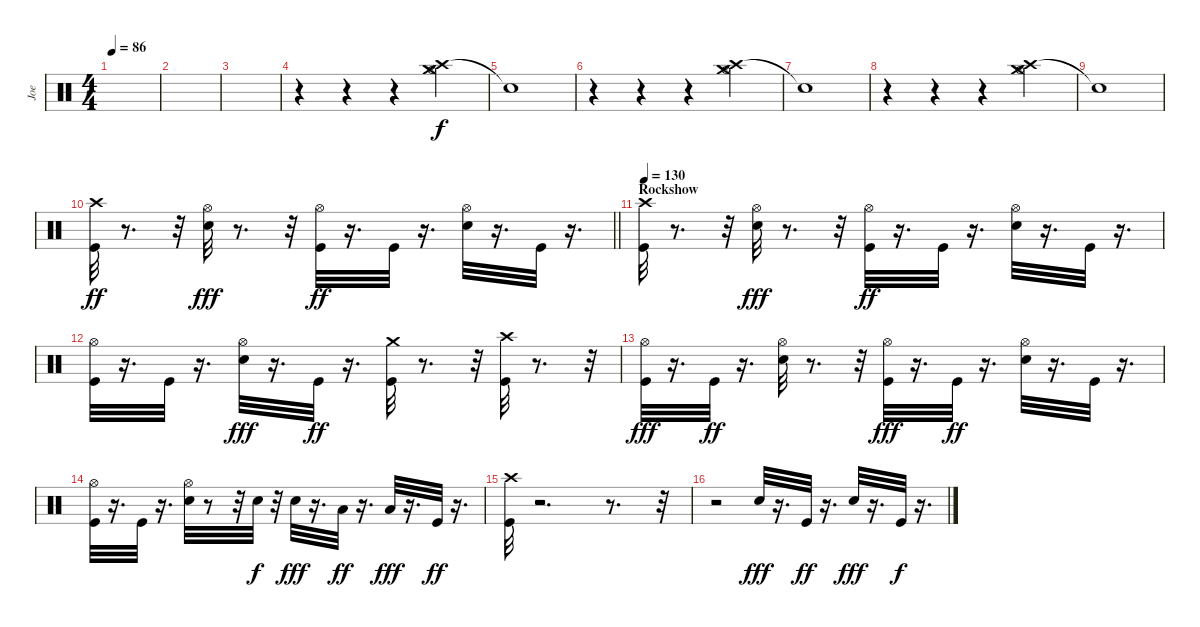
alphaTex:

\track ("Joe" "Joe") {instrument percussion}
\staff {score}
\articulation defaults
\ts (4 4)
\tempo 86
\clef neutral
\ks c
|
|
|
r.4 r.4 r.4 ("Crash high (hit)" "Hi-Hat (open)" "Crash medium (hit)").4{volume 13} |
"Snare (hit)"{t}.1 |
r.4{volume 1} r.4 r.4 ("Crash high (hit)" "Hi-Hat (open)" "Crash medium (hit)").4{volume 13} |
"Snare (hit)"{t}.1 |
r.4{volume 1} r.4 r.4 ("Crash high (hit)" "Hi-Hat (open)" "Crash medium (hit)").4{volume 13} |
"Snare (hit)"{t}.1 |
\barLineRight lightlight
("Crash high (hit)" "Kick (hit)").32{dy ff} r.8{d} r.32 ("Snare (hit) 2" "Hi-Hat (open)").32{dy fff} r.8{d} r.32 ("Kick (hit)" "Hi-Hat (open)").32{dy ff} r.16{d} "Kick (hit)".32 r.16{d} ("Hi-Hat (open)" "Snare (hit) 2").32 r.16{d} "Kick (hit)".32 r.16{d} |
\section ("" "Rockshow")
\tempo 130
("Crash high (hit)" "Kick (hit)").32 r.8{d} r.32 ("Snare (hit) 2" "Hi-Hat (open)").32{dy fff} r.8{d} r.32 ("Kick (hit)" "Hi-Hat (open)").32{dy ff} r.16{d} "Kick (hit)".32 r.16{d} ("Hi-Hat (open)" "Snare (hit) 2").32 r.16{d} "Kick (hit)".32 r.16{d} |
("Kick (hit)" "Hi-Hat (open)").32 r.16{d} "Kick (hit)".32 r.16{d} ("Snare (hit) 2" "Hi-Hat (open)").32{dy fff} r.16{d} "Kick (hit)".32{dy ff} r.16{d} ("Crash medium (hit)" "Kick (hit)").32 r.8{d} r.32 ("Kick (hit)" "Crash high (hit)").32 r.8{d} r.32 |
("Kick (hit)" "Hi-Hat (open)").32{dy fff} r.16{d} "Kick (hit)".32{dy ff} r.16{d} ("Hi-Hat (open)" "Snare (hit) 2").32 r.8{d} r.32 ("Kick (hit)" "Hi-Hat (open)").32{dy fff} r.16{d} "Kick (hit)".32{dy ff} r.16{d} ("Hi-Hat (open)" "Snare (hit) 2").32 r.16{d} "Kick (hit)".32 r.16{d} |
("Kick (hit)" "Hi-Hat (open)").32 r.16{d} "Kick (hit)".32 r.16{d} ("Hi-Hat (open)" "Snare (hit) 2").32 r.8 r.32 "Snare (hit) 2".32{dy f} r.32 "Snare (hit) 2".32{dy fff} r.16{d} "Low Tom (hit)".32{dy ff} r.16{d} "Low Tom (hit)".32{dy fff} r.16{d} "Kick (hit)".32{dy ff} r.16{d} |
("Crash high (hit)" "Kick (hit)").32 r.2{d} r.8{d} r.32 |
r.2 "Snare (hit) 2".32{dy fff} r.16{d} "Kick (hit)".32{dy ff} r.16{d} "Snare (hit) 2".32{dy fff} r.16{d} "Kick (hit)".32{dy f} r.16{d}
